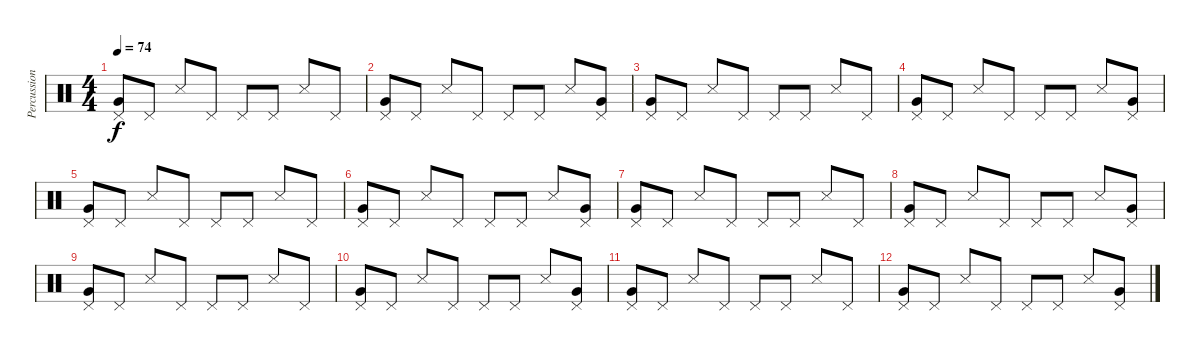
\track ("Percussion" "Percussion") {instrument percussion}
\staff {score}
\articulation defaults
\ts (4 4)
\tempo 74
\clef neutral
\ks c
("Pedal Hi-Hat (hit)" "Very Low Tom (hit)").8{dy f} "Pedal Hi-Hat (hit)".8 "Snare (side stick) 3".8 "Pedal Hi-Hat (hit)".8 "Pedal Hi-Hat (hit)".8 "Pedal Hi-Hat (hit)".8 "Snare (side stick) 3".8 "Pedal Hi-Hat (hit)".8 |
("Pedal Hi-Hat (hit)" "Very Low Tom (hit)").8 "Pedal Hi-Hat (hit)".8 "Snare (side stick) 3".8 "Pedal Hi-Hat (hit)".8 "Pedal Hi-Hat (hit)".8 "Pedal Hi-Hat (hit)".8 "Snare (side stick) 3".8 ("Pedal Hi-Hat (hit)" "Very Low Tom (hit)").8 |
("Pedal Hi-Hat (hit)" "Very Low Tom (hit)").8 "Pedal Hi-Hat (hit)".8 "Snare (side stick) 3".8 "Pedal Hi-Hat (hit)".8 "Pedal Hi-Hat (hit)".8 "Pedal Hi-Hat (hit)".8 "Snare (side stick) 3".8 "Pedal Hi-Hat (hit)".8 |
("Pedal Hi-Hat (hit)" "Very Low Tom (hit)").8 "Pedal Hi-Hat (hit)".8 "Snare (side stick) 3".8 "Pedal Hi-Hat (hit)".8 "Pedal Hi-Hat (hit)".8 "Pedal Hi-Hat (hit)".8 "Snare (side stick) 3".8 ("Pedal Hi-Hat (hit)" "Very Low Tom (hit)").8 |
("Pedal Hi-Hat (hit)" "Very Low Tom (hit)").8 "Pedal Hi-Hat (hit)".8 "Snare (side stick) 3".8 "Pedal Hi-Hat (hit)".8 "Pedal Hi-Hat (hit)".8 "Pedal Hi-Hat (hit)".8 "Snare (side stick) 3".8 "Pedal Hi-Hat (hit)".8 |
("Pedal Hi-Hat (hit)" "Very Low Tom (hit)").8 "Pedal Hi-Hat (hit)".8 "Snare (side stick) 3".8 "Pedal Hi-Hat (hit)".8 "Pedal Hi-Hat (hit)".8 "Pedal Hi-Hat (hit)".8 "Snare (side stick) 3".8 ("Pedal Hi-Hat (hit)" "Very Low Tom (hit)").8 |
("Pedal Hi-Hat (hit)" "Very Low Tom (hit)").8 "Pedal Hi-Hat (hit)".8 "Snare (side stick) 3".8 "Pedal Hi-Hat (hit)".8 "Pedal Hi-Hat (hit)".8 "Pedal Hi-Hat (hit)".8 "Snare (side stick) 3".8 "Pedal Hi-Hat (hit)".8 |
("Pedal Hi-Hat (hit)" "Very Low Tom (hit)").8 "Pedal Hi-Hat (hit)".8 "Snare (side stick) 3".8 "Pedal Hi-Hat (hit)".8 "Pedal Hi-Hat (hit)".8 "Pedal Hi-Hat (hit)".8 "Snare (side stick) 3".8 ("Pedal Hi-Hat (hit)" "Very Low Tom (hit)").8 |
("Pedal Hi-Hat (hit)" "Very Low Tom (hit)").8 "Pedal Hi-Hat (hit)".8 "Snare (side stick) 3".8 "Pedal Hi-Hat (hit)".8 "Pedal Hi-Hat (hit)".8 "Pedal Hi-Hat (hit)".8 "Snare (side stick) 3".8 "Pedal Hi-Hat (hit)".8 |
("Pedal Hi-Hat (hit)" "Very Low Tom (hit)").8 "Pedal Hi-Hat (hit)".8 "Snare (side stick) 3".8 "Pedal Hi-Hat (hit)".8 "Pedal Hi-Hat (hit)".8 "Pedal Hi-Hat (hit)".8 "Snare (side stick) 3".8 ("Pedal Hi-Hat (hit)" "Very Low Tom (hit)").8 |
("Pedal Hi-Hat (hit)" "Very Low Tom (hit)").8 "Pedal Hi-Hat (hit)".8 "Snare (side stick) 3".8 "Pedal Hi-Hat (hit)".8 "Pedal Hi-Hat (hit)".8 "Pedal Hi-Hat (hit)".8 "Snare (side stick) 3".8 "Pedal Hi-Hat (hit)".8 |
("Pedal Hi-Hat (hit)" "Very Low Tom (hit)").8 "Pedal Hi-Hat (hit)".8 "Snare (side stick) 3".8 "Pedal Hi-Hat (hit)".8 "Pedal Hi-Hat (hit)".8 "Pedal Hi-Hat (hit)".8 "Snare (side stick) 3".8 ("Pedal Hi-Hat (hit)" "Very Low Tom (hit)").8
